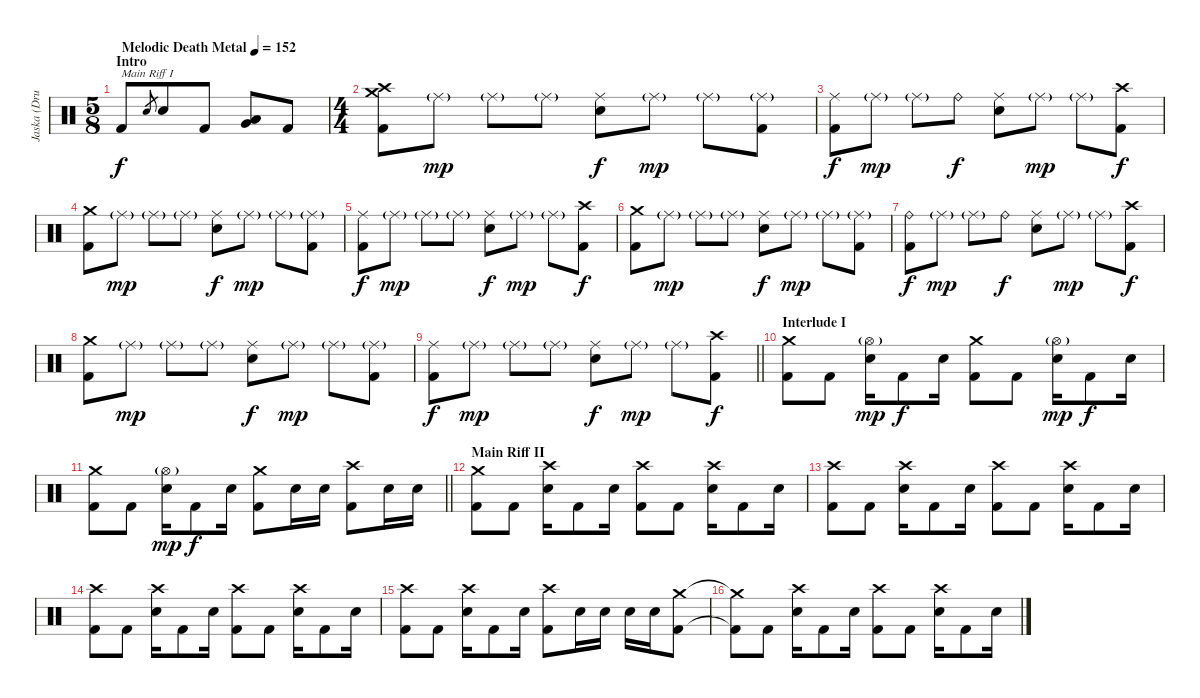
\track ("Jaska (Drums)" "Jaska (Dru") {instrument percussion}
\staff {score}
\articulation defaults
\ts (5 8)
\section ("" "Intro")
\tempo (152 "Melodic Death Metal")
\clef neutral
\ks c "Kick (hit) 2".8{txt "Main Riff I" dy f volume 16 balance 8} "Electric Snare (hit)".8{gr} "Electric Snare (hit)".8 "Kick (hit) 2".8
("Low Tom (hit)" "Very Low Tom (hit)").8 "Kick (hit) 2".8 |
\ts (4 4)
("Crash medium (hit)" "Crash high (hit)" "Kick (hit) 2").8 "Ride (middle)"{g}.8{dy mp} "Ride (middle)"{g}.8 "Ride (middle)"{g}.8 ("Ride (middle)" "Electric Snare (hit)").8{dy f} "Ride (middle)"{g}.8{dy mp} "Ride (middle)"{g}.8 ("Ride (middle)"{g} "Kick (hit) 2").8 |
("Ride (middle)" "Kick (hit) 2").8{dy f} "Ride (middle)"{g}.8{dy mp} "Ride (middle)"{g}.8 "Ride (bell)".8{dy f} ("Ride (middle)" "Electric Snare (hit)").8 "Ride (middle)"{g}.8{dy mp} "Ride (middle)"{g}.8 ("Crash high (hit)" "Kick (hit) 2").8{dy f} |
("Crash medium (hit)" "Kick (hit) 2").8 "Ride (middle)"{g}.8{dy mp} "Ride (middle)"{g}.8 "Ride (middle)"{g}.8 ("Ride (middle)" "Electric Snare (hit)").8{dy f} "Ride (middle)"{g}.8{dy mp} "Ride (middle)"{g}.8 ("Ride (middle)"{g} "Kick (hit) 2").8 |
("Ride (middle)" "Kick (hit) 2").8{dy f} "Ride (middle)"{g}.8{dy mp} "Ride (middle)"{g}.8 "Ride (middle)"{g}.8 ("Ride (middle)" "Electric Snare (hit)").8{dy f} "Ride (middle)"{g}.8{dy mp} "Ride (middle)"{g}.8 ("Crash high (hit)" "Kick (hit) 2").8{dy f} |
("Crash medium (hit)" "Kick (hit) 2").8 "Ride (middle)"{g}.8{dy mp} "Ride (middle)"{g}.8 "Ride (middle)"{g}.8 ("Ride (middle)" "Electric Snare (hit)").8{dy f} "Ride (middle)"{g}.8{dy mp} "Ride (middle)"{g}.8 ("Ride (middle)"{g} "Kick (hit) 2").8 |
("Ride (bell)" "Kick (hit) 2").8{dy f} "Ride (middle)"{g}.8{dy mp} "Ride (middle)"{g}.8 "Ride (bell)".8{dy f} ("Ride (middle)" "Electric Snare (hit)").8 "Ride (middle)"{g}.8{dy mp} "Ride (middle)"{g}.8 ("Crash high (hit)" "Kick (hit) 2").8{dy f} |
("Crash medium (hit)" "Kick (hit) 2").8 "Ride (middle)"{g}.8{dy mp} "Ride (middle)"{g}.8 "Ride (middle)"{g}.8 ("Ride (middle)" "Electric Snare (hit)").8{dy f} "Ride (middle)"{g}.8{dy mp} "Ride (middle)"{g}.8 ("Ride (middle)"{g} "Kick (hit) 2").8 |
\barLineRight lightlight
("Ride (middle)" "Kick (hit) 2").8{dy f} "Ride (middle)"{g}.8{dy mp} "Ride (middle)"{g}.8 "Ride (middle)"{g}.8 ("Ride (middle)" "Electric Snare (hit)").8{dy f} "Ride (middle)"{g}.8{dy mp} "Ride (middle)"{g}.8 ("Crash high (hit)" "Kick (hit) 2").8{dy f} |
\section ("" "Interlude I")
("Crash medium (hit)" "Kick (hit) 2").8 "Kick (hit) 2".8 ("Hi-Hat (open)"{g} "Electric Snare (hit)").16{dy mp} "Kick (hit) 2".8{dy f} "Electric Snare (hit)".16 ("Crash medium (hit)" "Kick (hit) 2").8 "Kick (hit) 2".8 ("Hi-Hat (open)"{g} "Electric Snare (hit)").16{dy mp} "Kick (hit) 2".8{dy f} "Electric Snare (hit)".16 |
\barLineRight lightlight
("Crash medium (hit)" "Kick (hit) 2").8 "Kick (hit) 2".8 ("Hi-Hat (open)"{g} "Electric Snare (hit)").16{dy mp} "Kick (hit) 2".8{dy f} "Electric Snare (hit)".16 ("Crash medium (hit)" "Kick (hit) 2").8 "Electric Snare (hit)".16 "Electric Snare (hit)".16 ("Crash high (hit)" "Kick (hit) 2").8 "Electric Snare (hit)".16 "Electric Snare (hit)".16 |
\section ("" "Main Riff II")
("Crash medium (hit)" "Kick (hit) 2").8 "Kick (hit) 2".8 ("Crash high (hit)" "Electric Snare (hit)").16 "Kick (hit) 2".8 "Electric Snare (hit)".16 ("Crash high (hit)" "Kick (hit) 2").8 "Kick (hit) 2".8 ("Crash high (hit)" "Electric Snare (hit)").16 "Kick (hit) 2".8 "Electric Snare (hit)".16 |
("Crash high (hit)" "Kick (hit) 2").8 "Kick (hit) 2".8 ("Crash high (hit)" "Electric Snare (hit)").16 "Kick (hit) 2".8 "Electric Snare (hit)".16 ("Crash high (hit)" "Kick (hit) 2").8 "Kick (hit) 2".8 ("Crash high (hit)" "Electric Snare (hit)").16 "Kick (hit) 2".8 "Electric Snare (hit)".16 |
("Crash high (hit)" "Kick (hit) 2").8 "Kick (hit) 2".8 ("Crash high (hit)" "Electric Snare (hit)").16 "Kick (hit) 2".8 "Electric Snare (hit)".16 ("Crash high (hit)" "Kick (hit) 2").8 "Kick (hit) 2".8 ("Crash high (hit)" "Electric Snare (hit)").16 "Kick (hit) 2".8 "Electric Snare (hit)".16 |
("Crash high (hit)" "Kick (hit) 2").8 "Kick (hit) 2".8 ("Crash high (hit)" "Electric Snare (hit)").16 "Kick (hit) 2".8 "Electric Snare (hit)".16 ("Crash high (hit)" "Kick (hit) 2").8 "Electric Snare (hit)".16 "Electric Snare (hit)".16 "Electric Snare (hit)".16 "Electric Snare (hit)".16 ("Crash medium (hit)" "Kick (hit) 2").8 |
("Crash medium (hit)"{t} "Kick (hit) 2"{t}).8 "Kick (hit) 2".8 ("Crash high (hit)" "Electric Snare (hit)").16 "Kick (hit) 2".8 "Electric Snare (hit)".16 ("Crash high (hit)" "Kick (hit) 2").8 "Kick (hit) 2".8 ("Crash high (hit)" "Electric Snare (hit)").16 "Kick (hit) 2".8 "Electric Snare (hit)".16
